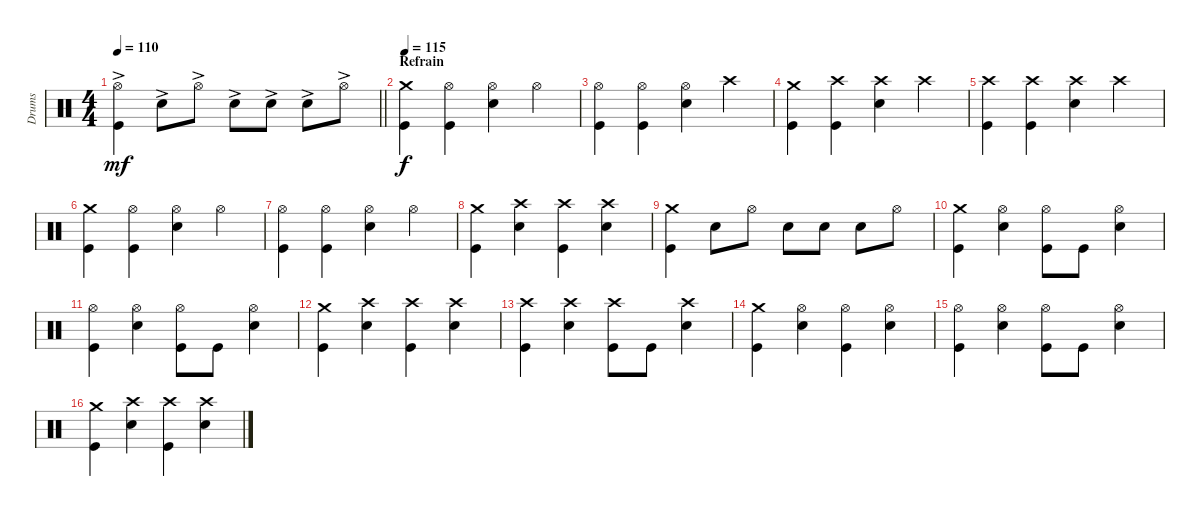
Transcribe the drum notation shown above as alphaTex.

\track ("Drums" "Drums") {instrument percussion}
\staff {score}
\articulation defaults
\ts (4 4)
\tempo 110
\clef neutral
\barLineRight lightlight
\ks c
("Hi-Hat (open)"{ac} "Kick (hit)"{ac}).4{dy mf} "Snare (hit) 2"{ac}.8 "Hi-Hat (open)"{ac}.8 "Snare (hit) 2"{ac}.8 "Snare (hit) 2"{ac}.8 "Snare (hit) 2"{ac}.8 "Hi-Hat (open)"{ac}.8 |
\section ("" "Refrain")
\tempo 115
("Crash medium (hit)" "Kick (hit)").4{dy f} ("Hi-Hat (open)" "Kick (hit)").4 ("Hi-Hat (open)" "Snare (hit) 2").4 "Hi-Hat (open)".4 |
("Hi-Hat (open)" "Kick (hit)").4 ("Hi-Hat (open)" "Kick (hit)").4 ("Hi-Hat (open)" "Snare (hit) 2").4 "Crash high (hit)".4 |
("Crash medium (hit)" "Kick (hit)").4 ("Crash high (hit)" "Kick (hit)").4 ("Crash high (hit)" "Snare (hit) 2").4 "Crash high (hit)".4 |
("Crash high (hit)" "Kick (hit)").4 ("Crash high (hit)" "Kick (hit)").4 ("Crash high (hit)" "Snare (hit) 2").4 "Crash high (hit)".4 |
("Crash medium (hit)" "Kick (hit)").4 ("Hi-Hat (open)" "Kick (hit)").4 ("Hi-Hat (open)" "Snare (hit) 2").4 "Hi-Hat (open)".4 |
("Hi-Hat (open)" "Kick (hit)").4 ("Hi-Hat (open)" "Kick (hit)").4 ("Hi-Hat (open)" "Snare (hit) 2").4 "Hi-Hat (open)".4 |
("Crash medium (hit)" "Kick (hit)").4 ("Crash high (hit)" "Snare (hit) 2").4 ("Crash high (hit)" "Kick (hit)").4 ("Crash high (hit)" "Snare (hit) 2").4 |
("Crash medium (hit)" "Kick (hit)").4 "Snare (hit) 2".8 "Hi-Hat (open)".8 "Snare (hit) 2".8 "Snare (hit) 2".8 "Snare (hit) 2".8 "Hi-Hat (open)".8 |
("Crash medium (hit)" "Kick (hit)").4 ("Hi-Hat (open)" "Snare (hit) 2").4 ("Hi-Hat (open)" "Kick (hit)").8 "Kick (hit)".8 ("Hi-Hat (open)" "Snare (hit) 2").4 |
("Hi-Hat (open)" "Kick (hit)").4 ("Hi-Hat (open)" "Snare (hit) 2").4 ("Hi-Hat (open)" "Kick (hit)").8 "Kick (hit)".8 ("Hi-Hat (open)" "Snare (hit) 2").4 |
("Crash medium (hit)" "Kick (hit)").4 ("Crash high (hit)" "Snare (hit) 2").4 ("Crash high (hit)" "Kick (hit)").4 ("Crash high (hit)" "Snare (hit) 2").4 |
("Crash high (hit)" "Kick (hit)").4 ("Crash high (hit)" "Snare (hit) 2").4 ("Crash high (hit)" "Kick (hit)").8 "Kick (hit)".8 ("Crash high (hit)" "Snare (hit) 2").4 |
("Crash medium (hit)" "Kick (hit)").4 ("Hi-Hat (open)" "Snare (hit) 2").4 ("Hi-Hat (open)" "Kick (hit)").4 ("Hi-Hat (open)" "Snare (hit) 2").4 |
("Hi-Hat (open)" "Kick (hit)").4 ("Hi-Hat (open)" "Snare (hit) 2").4 ("Hi-Hat (open)" "Kick (hit)").8 "Kick (hit)".8 ("Hi-Hat (open)" "Snare (hit) 2").4 |
("Crash medium (hit)" "Kick (hit)").4 ("Crash high (hit)" "Snare (hit) 2").4 ("Crash high (hit)" "Kick (hit)").4 ("Crash high (hit)" "Snare (hit) 2").4
